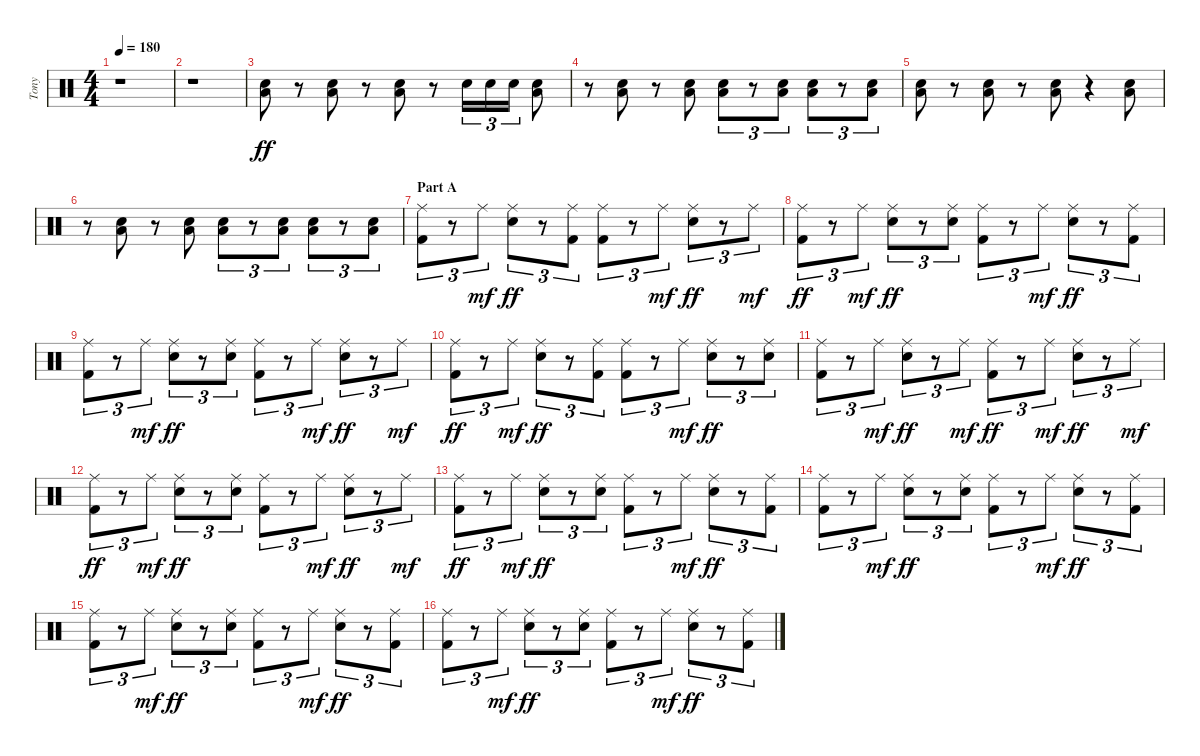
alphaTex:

\track ("Tony" "Tony") {instrument percussion}
\staff {score}
\articulation defaults
\ts (4 4)
\tempo 180
\clef neutral
\ks c
r.1{dy ff} |
r.1 |
("Low Floor Tom (hit)" "Electric Snare (hit)").8 r.8 ("Low Floor Tom (hit)" "Electric Snare (hit)").8 r.8 ("Low Floor Tom (hit)" "Electric Snare (hit)").8 r.8 "Electric Snare (hit)".16{tu (3 2)} "Electric Snare (hit)".16{tu (3 2)} "Electric Snare (hit)".16{tu (3 2)} ("Low Floor Tom (hit)" "Electric Snare (hit)").8 |
r.8 ("Low Floor Tom (hit)" "Electric Snare (hit)").8 r.8 ("Low Floor Tom (hit)" "Electric Snare (hit)").8 ("Low Floor Tom (hit)" "Electric Snare (hit)").8{tu (3 2)} r.8{tu (3 2)} ("Low Floor Tom (hit)" "Electric Snare (hit)").8{tu (3 2)} ("Low Floor Tom (hit)" "Electric Snare (hit)").8{tu (3 2)} r.8{tu (3 2)} ("Low Floor Tom (hit)" "Electric Snare (hit)").8{tu (3 2)} |
("Low Floor Tom (hit)" "Electric Snare (hit)").8 r.8 ("Low Floor Tom (hit)" "Electric Snare (hit)").8 r.8 ("Low Floor Tom (hit)" "Electric Snare (hit)").8 r.4 ("Low Floor Tom (hit)" "Electric Snare (hit)").8 |
r.8 ("Low Floor Tom (hit)" "Electric Snare (hit)").8 r.8 ("Low Floor Tom (hit)" "Electric Snare (hit)").8 ("Low Floor Tom (hit)" "Electric Snare (hit)").8{tu (3 2)} r.8{tu (3 2)} ("Low Floor Tom (hit)" "Electric Snare (hit)").8{tu (3 2)} ("Low Floor Tom (hit)" "Electric Snare (hit)").8{tu (3 2)} r.8{tu (3 2)} ("Low Floor Tom (hit)" "Electric Snare (hit)").8{tu (3 2)} |
\section ("" "Part A")
("Ride (middle)" "Kick (hit) 2").8{tu (3 2)} r.8{tu (3 2)} "Ride (middle)".8{tu (3 2) dy mf} ("Ride (middle)" "Electric Snare (hit)").8{tu (3 2) dy ff} r.8{tu (3 2)} ("Ride (middle)" "Kick (hit) 2").8{tu (3 2)} ("Ride (middle)" "Kick (hit) 2").8{tu (3 2)} r.8{tu (3 2)} "Ride (middle)".8{tu (3 2) dy mf} ("Ride (middle)" "Electric Snare (hit)").8{tu (3 2) dy ff} r.8{tu (3 2)} "Ride (middle)".8{tu (3 2) dy mf} |
("Ride (middle)" "Kick (hit) 2").8{tu (3 2) dy ff} r.8{tu (3 2)} "Ride (middle)".8{tu (3 2) dy mf} ("Ride (middle)" "Electric Snare (hit)").8{tu (3 2) dy ff} r.8{tu (3 2)} ("Ride (middle)" "Electric Snare (hit)").8{tu (3 2)} ("Ride (middle)" "Kick (hit) 2").8{tu (3 2)} r.8{tu (3 2)} "Ride (middle)".8{tu (3 2) dy mf} ("Ride (middle)" "Electric Snare (hit)").8{tu (3 2) dy ff} r.8{tu (3 2)} ("Ride (middle)" "Kick (hit) 2").8{tu (3 2)} |
("Ride (middle)" "Kick (hit) 2").8{tu (3 2)} r.8{tu (3 2)} "Ride (middle)".8{tu (3 2) dy mf} ("Ride (middle)" "Electric Snare (hit)").8{tu (3 2) dy ff} r.8{tu (3 2)} ("Ride (middle)" "Electric Snare (hit)").8{tu (3 2)} ("Ride (middle)" "Kick (hit) 2").8{tu (3 2)} r.8{tu (3 2)} "Ride (middle)".8{tu (3 2) dy mf} ("Ride (middle)" "Electric Snare (hit)").8{tu (3 2) dy ff} r.8{tu (3 2)} "Ride (middle)".8{tu (3 2) dy mf} |
("Ride (middle)" "Kick (hit) 2").8{tu (3 2) dy ff} r.8{tu (3 2)} "Ride (middle)".8{tu (3 2) dy mf} ("Ride (middle)" "Electric Snare (hit)").8{tu (3 2) dy ff} r.8{tu (3 2)} ("Ride (middle)" "Kick (hit) 2").8{tu (3 2)} ("Ride (middle)" "Kick (hit) 2").8{tu (3 2)} r.8{tu (3 2)} "Ride (middle)".8{tu (3 2) dy mf} ("Ride (middle)" "Electric Snare (hit)").8{tu (3 2) dy ff} r.8{tu (3 2)} ("Ride (middle)" "Electric Snare (hit)").8{tu (3 2)} |
("Ride (middle)" "Kick (hit) 2").8{tu (3 2)} r.8{tu (3 2)} "Ride (middle)".8{tu (3 2) dy mf} ("Ride (middle)" "Electric Snare (hit)").8{tu (3 2) dy ff} r.8{tu (3 2)} "Ride (middle)".8{tu (3 2) dy mf} ("Ride (middle)" "Kick (hit) 2").8{tu (3 2) dy ff} r.8{tu (3 2)} "Ride (middle)".8{tu (3 2) dy mf} ("Ride (middle)" "Electric Snare (hit)").8{tu (3 2) dy ff} r.8{tu (3 2)} "Ride (middle)".8{tu (3 2) dy mf} |
("Ride (middle)" "Kick (hit) 2").8{tu (3 2) dy ff} r.8{tu (3 2)} "Ride (middle)".8{tu (3 2) dy mf} ("Ride (middle)" "Electric Snare (hit)").8{tu (3 2) dy ff} r.8{tu (3 2)} ("Ride (middle)" "Electric Snare (hit)").8{tu (3 2)} ("Ride (middle)" "Kick (hit) 2").8{tu (3 2)} r.8{tu (3 2)} "Ride (middle)".8{tu (3 2) dy mf} ("Ride (middle)" "Electric Snare (hit)").8{tu (3 2) dy ff} r.8{tu (3 2)} "Ride (middle)".8{tu (3 2) dy mf} |
("Ride (middle)" "Kick (hit) 2").8{tu (3 2) dy ff} r.8{tu (3 2)} "Ride (middle)".8{tu (3 2) dy mf} ("Ride (middle)" "Electric Snare (hit)").8{tu (3 2) dy ff} r.8{tu (3 2)} ("Ride (middle)" "Electric Snare (hit)").8{tu (3 2)} ("Ride (middle)" "Kick (hit) 2").8{tu (3 2)} r.8{tu (3 2)} "Ride (middle)".8{tu (3 2) dy mf} ("Ride (middle)" "Electric Snare (hit)").8{tu (3 2) dy ff} r.8{tu (3 2)} ("Ride (middle)" "Kick (hit) 2").8{tu (3 2)} |
("Ride (middle)" "Kick (hit) 2").8{tu (3 2)} r.8{tu (3 2)} "Ride (middle)".8{tu (3 2) dy mf} ("Ride (middle)" "Electric Snare (hit)").8{tu (3 2) dy ff} r.8{tu (3 2)} ("Ride (middle)" "Electric Snare (hit)").8{tu (3 2)} ("Ride (middle)" "Kick (hit) 2").8{tu (3 2)} r.8{tu (3 2)} "Ride (middle)".8{tu (3 2) dy mf} ("Ride (middle)" "Electric Snare (hit)").8{tu (3 2) dy ff} r.8{tu (3 2)} ("Ride (middle)" "Kick (hit) 2").8{tu (3 2)} |
("Ride (middle)" "Kick (hit) 2").8{tu (3 2)} r.8{tu (3 2)} "Ride (middle)".8{tu (3 2) dy mf} ("Ride (middle)" "Electric Snare (hit)").8{tu (3 2) dy ff} r.8{tu (3 2)} ("Ride (middle)" "Electric Snare (hit)").8{tu (3 2)} ("Ride (middle)" "Kick (hit) 2").8{tu (3 2)} r.8{tu (3 2)} "Ride (middle)".8{tu (3 2) dy mf} ("Ride (middle)" "Electric Snare (hit)").8{tu (3 2) dy ff} r.8{tu (3 2)} ("Ride (middle)" "Kick (hit) 2").8{tu (3 2)} |
("Ride (middle)" "Kick (hit) 2").8{tu (3 2)} r.8{tu (3 2)} "Ride (middle)".8{tu (3 2) dy mf} ("Ride (middle)" "Electric Snare (hit)").8{tu (3 2) dy ff} r.8{tu (3 2)} ("Ride (middle)" "Electric Snare (hit)").8{tu (3 2)} ("Ride (middle)" "Kick (hit) 2").8{tu (3 2)} r.8{tu (3 2)} "Ride (middle)".8{tu (3 2) dy mf} ("Ride (middle)" "Electric Snare (hit)").8{tu (3 2) dy ff} r.8{tu (3 2)} ("Ride (middle)" "Kick (hit) 2").8{tu (3 2)}
